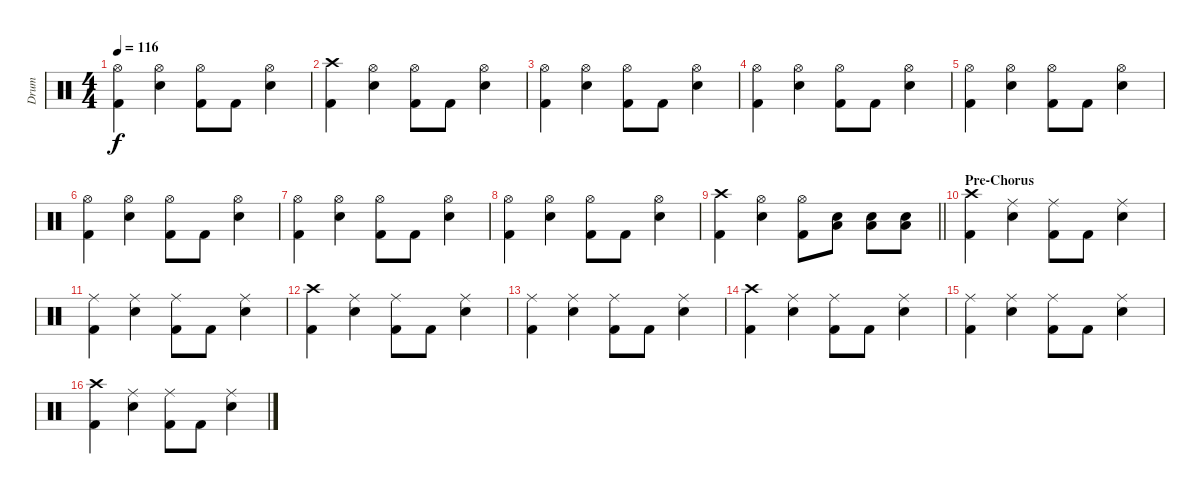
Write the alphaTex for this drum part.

\track ("Drum" "Drum") {instrument percussion}
\staff {score}
\articulation defaults
\ts (4 4)
\tempo 116
\clef neutral
\ks c
("Hi-Hat (open)" "Kick (hit) 2").4{dy f} ("Hi-Hat (open)" "Electric Snare (hit)").4 ("Hi-Hat (open)" "Kick (hit) 2").8 "Kick (hit) 2".8 ("Hi-Hat (open)" "Electric Snare (hit)").4 |
("Crash high (hit)" "Kick (hit) 2").4 ("Hi-Hat (open)" "Electric Snare (hit)").4 ("Hi-Hat (open)" "Kick (hit) 2").8 "Kick (hit) 2".8 ("Hi-Hat (open)" "Electric Snare (hit)").4 |
("Hi-Hat (open)" "Kick (hit) 2").4 ("Hi-Hat (open)" "Electric Snare (hit)").4 ("Hi-Hat (open)" "Kick (hit) 2").8 "Kick (hit) 2".8 ("Hi-Hat (open)" "Electric Snare (hit)").4 |
("Hi-Hat (open)" "Kick (hit) 2").4 ("Hi-Hat (open)" "Electric Snare (hit)").4 ("Hi-Hat (open)" "Kick (hit) 2").8 "Kick (hit) 2".8 ("Hi-Hat (open)" "Electric Snare (hit)").4 |
("Hi-Hat (open)" "Kick (hit) 2").4 ("Hi-Hat (open)" "Electric Snare (hit)").4 ("Hi-Hat (open)" "Kick (hit) 2").8 "Kick (hit) 2".8 ("Hi-Hat (open)" "Electric Snare (hit)").4 |
("Hi-Hat (open)" "Kick (hit) 2").4 ("Hi-Hat (open)" "Electric Snare (hit)").4 ("Hi-Hat (open)" "Kick (hit) 2").8 "Kick (hit) 2".8 ("Hi-Hat (open)" "Electric Snare (hit)").4 |
("Hi-Hat (open)" "Kick (hit) 2").4 ("Hi-Hat (open)" "Electric Snare (hit)").4 ("Hi-Hat (open)" "Kick (hit) 2").8 "Kick (hit) 2".8 ("Hi-Hat (open)" "Electric Snare (hit)").4 |
("Hi-Hat (open)" "Kick (hit) 2").4 ("Hi-Hat (open)" "Electric Snare (hit)").4 ("Hi-Hat (open)" "Kick (hit) 2").8 "Kick (hit) 2".8 ("Hi-Hat (open)" "Electric Snare (hit)").4 |
\barLineRight lightlight
("Crash high (hit)" "Kick (hit) 2").4 ("Hi-Hat (open)" "Electric Snare (hit)").4 ("Hi-Hat (open)" "Kick (hit) 2").8 ("Low Tom (hit)" "Electric Snare (hit)").8 ("Low Tom (hit)" "Electric Snare (hit)").8 ("Low Tom (hit)" "Electric Snare (hit)").8 |
\section ("" "Pre-Chorus")
("Crash high (hit)" "Kick (hit) 2").4 ("Ride (middle)" "Electric Snare (hit)").4 ("Ride (middle)" "Kick (hit) 2").8 "Kick (hit) 2".8 ("Ride (middle)" "Electric Snare (hit)").4 |
("Ride (middle)" "Kick (hit) 2").4 ("Ride (middle)" "Electric Snare (hit)").4 ("Ride (middle)" "Kick (hit) 2").8 "Kick (hit) 2".8 ("Ride (middle)" "Electric Snare (hit)").4 |
("Crash high (hit)" "Kick (hit) 2").4 ("Ride (middle)" "Electric Snare (hit)").4 ("Ride (middle)" "Kick (hit) 2").8 "Kick (hit) 2".8 ("Ride (middle)" "Electric Snare (hit)").4 |
("Ride (middle)" "Kick (hit) 2").4 ("Ride (middle)" "Electric Snare (hit)").4 ("Ride (middle)" "Kick (hit) 2").8 "Kick (hit) 2".8 ("Ride (middle)" "Electric Snare (hit)").4 |
("Crash high (hit)" "Kick (hit) 2").4 ("Ride (middle)" "Electric Snare (hit)").4 ("Ride (middle)" "Kick (hit) 2").8 "Kick (hit) 2".8 ("Ride (middle)" "Electric Snare (hit)").4 |
("Ride (middle)" "Kick (hit) 2").4 ("Ride (middle)" "Electric Snare (hit)").4 ("Ride (middle)" "Kick (hit) 2").8 "Kick (hit) 2".8 ("Ride (middle)" "Electric Snare (hit)").4 |
("Crash high (hit)" "Kick (hit) 2").4 ("Ride (middle)" "Electric Snare (hit)").4 ("Ride (middle)" "Kick (hit) 2").8 "Kick (hit) 2".8 ("Ride (middle)" "Electric Snare (hit)").4
